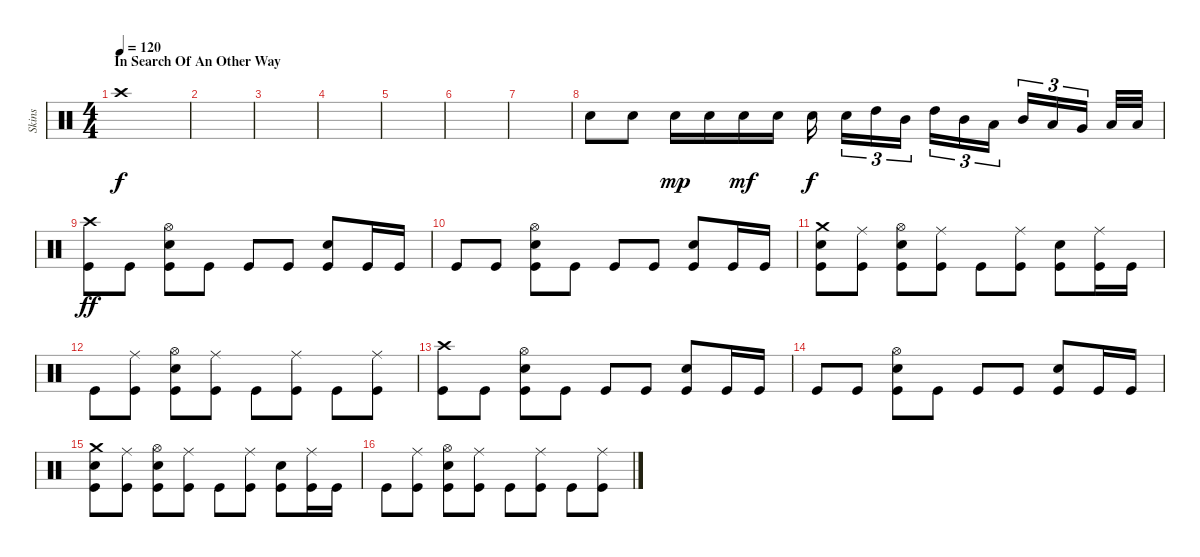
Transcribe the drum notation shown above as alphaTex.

\track ("Skins" "Skins") {instrument percussion}
\staff {score}
\articulation defaults
\ts (4 4)
\section ("" "In Search Of An Other Way")
\tempo 120
\clef neutral
\ks c "Crash high (hit)".1{dy f}
|
|
|
|
|
|
|
"Electric Snare (hit)".8 "Electric Snare (hit)".8 "Snare (hit) 2".16{dy mp} "Snare (hit) 2".16 "Snare (hit) 2".16{dy mf} "Snare (hit) 2".16 "Snare (hit) 2".16{dy f} "Snare (hit) 2".16{tu (3 2)} "High Tom (hit)".16{tu (3 2)} "Mid Tom (hit)".16{tu (3 2)} "High Tom (hit)".16{tu (3 2)} "Mid Tom (hit)".16{tu (3 2)} "Low Tom (hit)".16{tu (3 2)} "Mid Tom (hit)".16{tu (3 2)} "Low Tom (hit)".16{tu (3 2)} "Very Low Tom (hit)".16{tu (3 2)} "Low Floor Tom (hit)".32 "Low Floor Tom (hit)".32 |
("Crash high (hit)" "Kick (hit)").8{dy ff} "Kick (hit)".8 ("Hi-Hat (open)" "Electric Snare (hit)" "Kick (hit)").8 "Kick (hit)".8 "Kick (hit)".8 "Kick (hit)".8 ("Snare (hit) 2" "Kick (hit)").8 "Kick (hit)".16 "Kick (hit)".16 |
"Kick (hit)".8 "Kick (hit)".8 ("Hi-Hat (open)" "Electric Snare (hit)" "Kick (hit)").8 "Kick (hit)".8 "Kick (hit)".8 "Kick (hit)".8 ("Snare (hit) 2" "Kick (hit)").8 "Kick (hit)".16 "Kick (hit)".16 |
("Crash medium (hit)" "Snare (hit) 2" "Kick (hit)").8 ("Ride (middle)" "Kick (hit)").8 ("Hi-Hat (open)" "Electric Snare (hit)" "Kick (hit)").8 ("Ride (middle)" "Kick (hit)").8 "Kick (hit)".8 ("Ride (middle)" "Kick (hit)").8 ("Snare (hit) 2" "Kick (hit)").8 ("Ride (middle)" "Kick (hit)").16 "Kick (hit)".16 |
"Kick (hit)".8 ("Ride (middle)" "Kick (hit)").8 ("Hi-Hat (open)" "Electric Snare (hit)" "Kick (hit)").8 ("Ride (middle)" "Kick (hit)").8 "Kick (hit)".8 ("Ride (middle)" "Kick (hit)").8 "Kick (hit)".8 ("Ride (middle)" "Kick (hit)").8 |
("Crash high (hit)" "Kick (hit)").8 "Kick (hit)".8 ("Hi-Hat (open)" "Electric Snare (hit)" "Kick (hit)").8 "Kick (hit)".8 "Kick (hit)".8 "Kick (hit)".8 ("Snare (hit) 2" "Kick (hit)").8 "Kick (hit)".16 "Kick (hit)".16 |
"Kick (hit)".8 "Kick (hit)".8 ("Hi-Hat (open)" "Electric Snare (hit)" "Kick (hit)").8 "Kick (hit)".8 "Kick (hit)".8 "Kick (hit)".8 ("Snare (hit) 2" "Kick (hit)").8 "Kick (hit)".16 "Kick (hit)".16 |
("Crash medium (hit)" "Snare (hit) 2" "Kick (hit)").8 ("Ride (middle)" "Kick (hit)").8 ("Hi-Hat (open)" "Electric Snare (hit)" "Kick (hit)").8 ("Ride (middle)" "Kick (hit)").8 "Kick (hit)".8 ("Ride (middle)" "Kick (hit)").8 ("Snare (hit) 2" "Kick (hit)").8 ("Ride (middle)" "Kick (hit)").16 "Kick (hit)".16 |
"Kick (hit)".8 ("Ride (middle)" "Kick (hit)").8 ("Hi-Hat (open)" "Electric Snare (hit)" "Kick (hit)").8 ("Ride (middle)" "Kick (hit)").8 "Kick (hit)".8 ("Ride (middle)" "Kick (hit)").8 "Kick (hit)".8 ("Ride (middle)" "Kick (hit)").8
